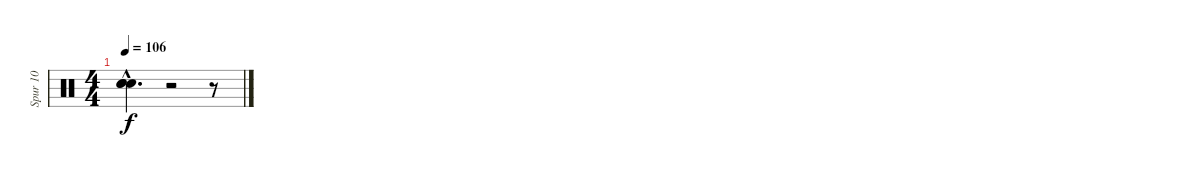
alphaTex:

\track ("Spur 10" "Spur 10") {instrument percussion}
\staff {score}
\articulation defaults
\ts (4 4)
\tempo 106
\clef neutral
\ks c
("Snare (hit)"{hac t} "Snare (hit)"{hac t} "Snare (hit)"{t}).4{d dy f} r.2 r.8
